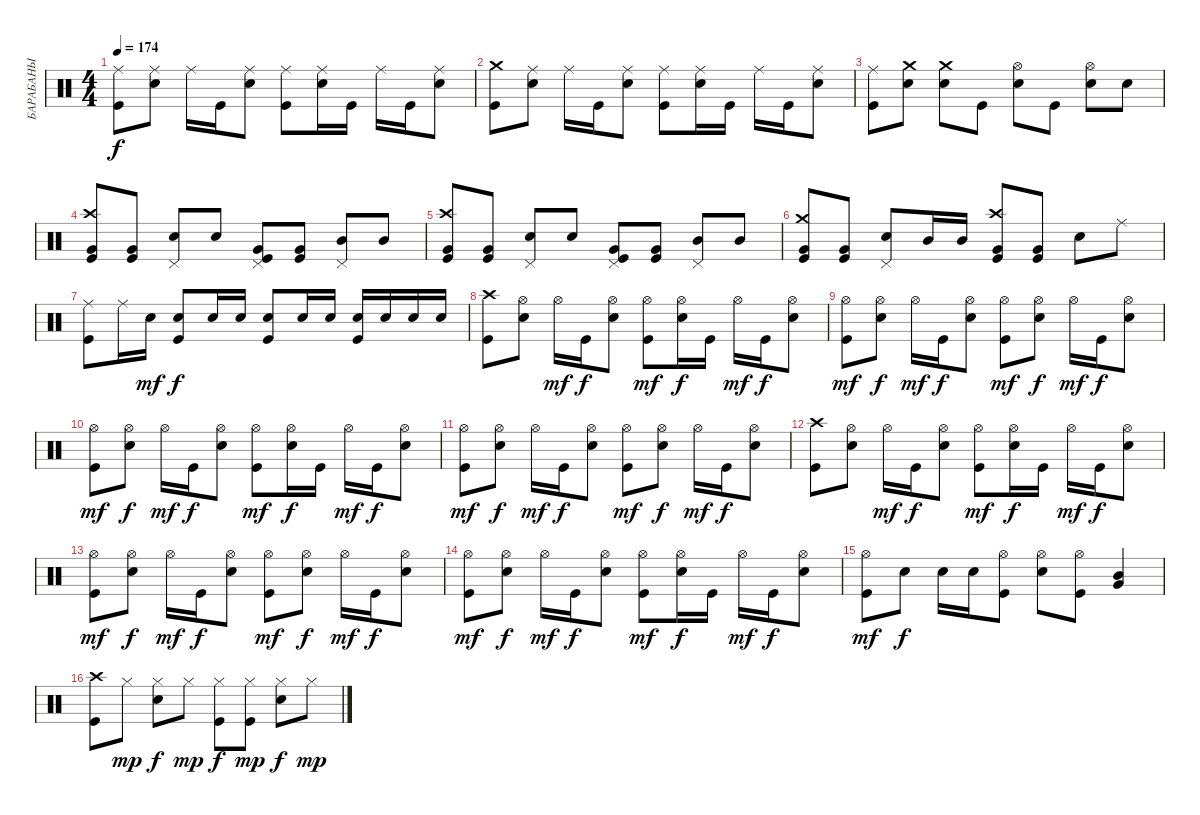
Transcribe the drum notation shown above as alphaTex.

\track ("БАРАБАНЫ" "БАРАБАНЫ") {instrument percussion}
\staff {score}
\articulation defaults
\ts (4 4)
\tempo 174
\clef neutral
\ks c
("Ride (middle)" "Kick (hit)").8{dy f} ("Ride (middle)" "Electric Snare (hit)").8 "Ride (middle)".16 "Kick (hit)".16 ("Ride (middle)" "Electric Snare (hit)").8 ("Ride (middle)" "Kick (hit)").8 ("Ride (middle)" "Electric Snare (hit)").16 "Kick (hit)".16 "Ride (middle)".16 "Kick (hit)".16 ("Ride (middle)" "Electric Snare (hit)").8 |
("Crash medium (hit)" "Kick (hit)").8 ("Ride (middle)" "Electric Snare (hit)").8 "Ride (middle)".16 "Kick (hit)".16 ("Ride (middle)" "Electric Snare (hit)").8 ("Ride (middle)" "Kick (hit)").8 ("Ride (middle)" "Electric Snare (hit)").16 "Kick (hit)".16 "Ride (middle)".16 "Kick (hit)".16 ("Ride (middle)" "Electric Snare (hit)").8 |
("Ride (middle)" "Kick (hit)").8 ("Crash medium (hit)" "Electric Snare (hit)").8 ("Crash medium (hit)" "Electric Snare (hit)").8 "Kick (hit)".8 ("Hi-Hat (open)" "Electric Snare (hit)").8 "Kick (hit)".8 ("Hi-Hat (open)" "Electric Snare (hit)").8 "Electric Snare (hit)".8 |
("Crash high (hit)" "Very Low Tom (hit)" "Kick (hit)").8 ("Very Low Tom (hit)" "Kick (hit)").8 ("Pedal Hi-Hat (hit)" "Electric Snare (hit)").8 "Electric Snare (hit)".8 ("Pedal Hi-Hat (hit)" "Very Low Tom (hit)" "Kick (hit)").8 ("Very Low Tom (hit)" "Kick (hit)").8 ("Pedal Hi-Hat (hit)" "Mid Tom (hit)").8 "Mid Tom (hit)".8 |
("Crash high (hit)" "Very Low Tom (hit)" "Kick (hit)").8 ("Very Low Tom (hit)" "Kick (hit)").8 ("Pedal Hi-Hat (hit)" "Electric Snare (hit)").8 "Electric Snare (hit)".8 ("Pedal Hi-Hat (hit)" "Very Low Tom (hit)" "Kick (hit)").8 ("Very Low Tom (hit)" "Kick (hit)").8 ("Pedal Hi-Hat (hit)" "Mid Tom (hit)").8 "Mid Tom (hit)".8 |
("Crash medium (hit)" "Very Low Tom (hit)" "Kick (hit)").8 ("Very Low Tom (hit)" "Kick (hit)").8 ("Pedal Hi-Hat (hit)" "Electric Snare (hit)").8 "Mid Tom (hit)".16 "Mid Tom (hit)".16 ("Crash high (hit)" "Very Low Tom (hit)" "Kick (hit)").8 ("Very Low Tom (hit)" "Kick (hit)").8 "Electric Snare (hit)".8 "Ride (middle)".8 |
("Ride (middle)" "Kick (hit)").8 "Ride (middle)".16 "Electric Snare (hit)".16{dy mf} ("Electric Snare (hit)" "Kick (hit)").8{dy f} "Electric Snare (hit)".16 "Electric Snare (hit)".16 ("Electric Snare (hit)" "Kick (hit)").8 "Electric Snare (hit)".16 "Electric Snare (hit)".16 ("Electric Snare (hit)" "Kick (hit)").16 "Electric Snare (hit)".16 "Electric Snare (hit)".16 "Electric Snare (hit)".16 |
("Crash high (hit)" "Kick (hit)").8 ("Hi-Hat (open)" "Electric Snare (hit)").8 "Hi-Hat (open)".16{dy mf} "Kick (hit)".16{dy f} ("Hi-Hat (open)" "Electric Snare (hit)").8 ("Hi-Hat (open)" "Kick (hit)").8{dy mf} ("Hi-Hat (open)" "Electric Snare (hit)").16{dy f} "Kick (hit)".16 "Hi-Hat (open)".16{dy mf} "Kick (hit)".16{dy f} ("Hi-Hat (open)" "Electric Snare (hit)").8 |
("Hi-Hat (open)" "Kick (hit)").8{dy mf} ("Hi-Hat (open)" "Electric Snare (hit)").8{dy f} "Hi-Hat (open)".16{dy mf} "Kick (hit)".16{dy f} ("Hi-Hat (open)" "Electric Snare (hit)").8 ("Hi-Hat (open)" "Kick (hit)").8{dy mf} ("Hi-Hat (open)" "Electric Snare (hit)").8{dy f} "Hi-Hat (open)".16{dy mf} "Kick (hit)".16{dy f} ("Hi-Hat (open)" "Electric Snare (hit)").8 |
("Hi-Hat (open)" "Kick (hit)").8{dy mf} ("Hi-Hat (open)" "Electric Snare (hit)").8{dy f} "Hi-Hat (open)".16{dy mf} "Kick (hit)".16{dy f} ("Hi-Hat (open)" "Electric Snare (hit)").8 ("Hi-Hat (open)" "Kick (hit)").8{dy mf} ("Hi-Hat (open)" "Electric Snare (hit)").16{dy f} "Kick (hit)".16 "Hi-Hat (open)".16{dy mf} "Kick (hit)".16{dy f} ("Hi-Hat (open)" "Electric Snare (hit)").8 |
("Hi-Hat (open)" "Kick (hit)").8{dy mf} ("Hi-Hat (open)" "Electric Snare (hit)").8{dy f} "Hi-Hat (open)".16{dy mf} "Kick (hit)".16{dy f} ("Hi-Hat (open)" "Electric Snare (hit)").8 ("Hi-Hat (open)" "Kick (hit)").8{dy mf} ("Hi-Hat (open)" "Electric Snare (hit)").8{dy f} "Hi-Hat (open)".16{dy mf} "Kick (hit)".16{dy f} ("Hi-Hat (open)" "Electric Snare (hit)").8 |
("Crash high (hit)" "Kick (hit)").8 ("Hi-Hat (open)" "Electric Snare (hit)").8 "Hi-Hat (open)".16{dy mf} "Kick (hit)".16{dy f} ("Hi-Hat (open)" "Electric Snare (hit)").8 ("Hi-Hat (open)" "Kick (hit)").8{dy mf} ("Hi-Hat (open)" "Electric Snare (hit)").16{dy f} "Kick (hit)".16 "Hi-Hat (open)".16{dy mf} "Kick (hit)".16{dy f} ("Hi-Hat (open)" "Electric Snare (hit)").8 |
("Hi-Hat (open)" "Kick (hit)").8{dy mf} ("Hi-Hat (open)" "Electric Snare (hit)").8{dy f} "Hi-Hat (open)".16{dy mf} "Kick (hit)".16{dy f} ("Hi-Hat (open)" "Electric Snare (hit)").8 ("Hi-Hat (open)" "Kick (hit)").8{dy mf} ("Hi-Hat (open)" "Electric Snare (hit)").8{dy f} "Hi-Hat (open)".16{dy mf} "Kick (hit)".16{dy f} ("Hi-Hat (open)" "Electric Snare (hit)").8 |
("Hi-Hat (open)" "Kick (hit)").8{dy mf} ("Hi-Hat (open)" "Electric Snare (hit)").8{dy f} "Hi-Hat (open)".16{dy mf} "Kick (hit)".16{dy f} ("Hi-Hat (open)" "Electric Snare (hit)").8 ("Hi-Hat (open)" "Kick (hit)").8{dy mf} ("Hi-Hat (open)" "Electric Snare (hit)").16{dy f} "Kick (hit)".16 "Hi-Hat (open)".16{dy mf} "Kick (hit)".16{dy f} ("Hi-Hat (open)" "Electric Snare (hit)").8 |
("Hi-Hat (open)" "Kick (hit)").8{dy mf} "Electric Snare (hit)".8{dy f} "Electric Snare (hit)".16 "Electric Snare (hit)".16 ("Hi-Hat (open)" "Kick (hit)").8 ("Hi-Hat (open)" "Electric Snare (hit)").8 ("Hi-Hat (open)" "Kick (hit)").8 ("Mid Tom (hit)" "Very Low Tom (hit)").4 |
("Crash high (hit)" "Kick (hit)").8 "Hi-Hat (closed)".8{dy mp} ("Hi-Hat (closed)" "Electric Snare (hit)").8{dy f} "Hi-Hat (closed)".8{dy mp} ("Hi-Hat (closed)" "Kick (hit)").8{dy f} ("Hi-Hat (closed)" "Kick (hit)").8{dy mp} ("Hi-Hat (closed)" "Electric Snare (hit)").8{dy f} "Hi-Hat (closed)".8{dy mp}
